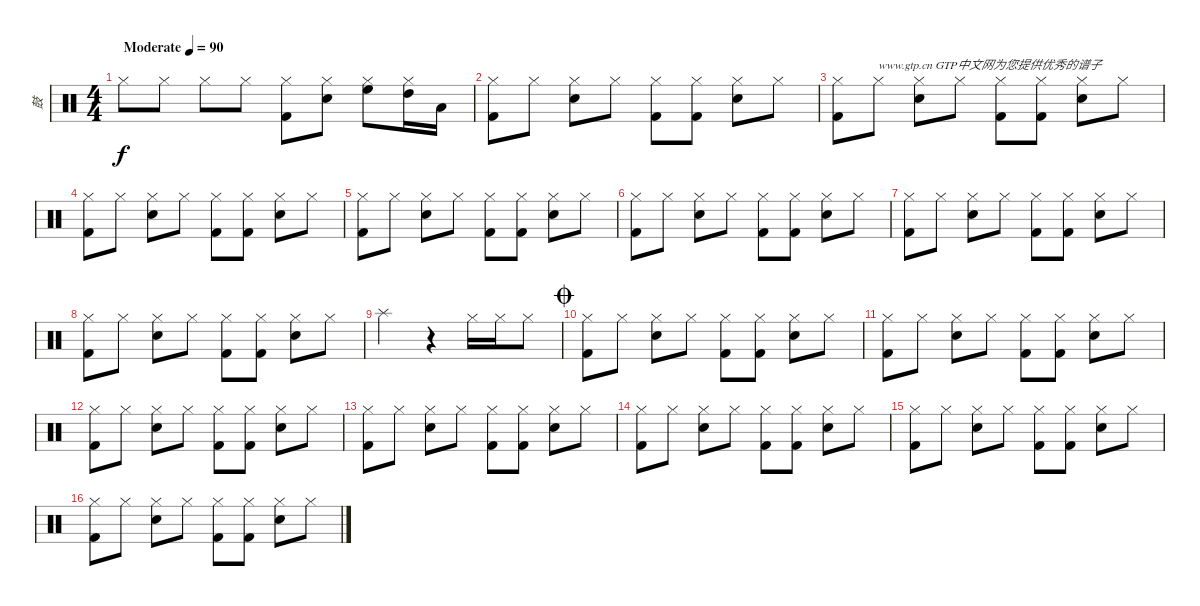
\track ("鼓" "鼓") {instrument percussion}
\staff {score}
\articulation defaults
\ts (4 4)
\tempo (90 "Moderate")
\clef neutral
\ks c "Hi-Hat (closed)".8{dy f} "Hi-Hat (closed)".8 "Hi-Hat (closed)".8 "Hi-Hat (closed)".8
("Kick (hit) 2" "Hi-Hat (closed)").8 ("Hi-Hat (closed)" "Electric Snare (hit)").8 ("High Floor Tom (hit)" "Hi-Hat (closed)").8 ("Hi-Hat (closed)" "High Tom (hit)").16 "Low Tom (hit)".16 |
("Hi-Hat (closed)" "Kick (hit) 2").8 "Hi-Hat (closed)".8 ("Electric Snare (hit)" "Hi-Hat (closed)").8 "Hi-Hat (closed)".8 ("Kick (hit) 2" "Hi-Hat (closed)").8 ("Kick (hit) 2" "Hi-Hat (closed)").8 ("Electric Snare (hit)" "Hi-Hat (closed)").8 "Hi-Hat (closed)".8 |
("Hi-Hat (closed)" "Kick (hit) 2").8 "Hi-Hat (closed)".8{txt "www.gtp.cn GTP中文网为您提供优秀的谱子"} ("Electric Snare (hit)" "Hi-Hat (closed)").8 "Hi-Hat (closed)".8 ("Kick (hit) 2" "Hi-Hat (closed)").8 ("Kick (hit) 2" "Hi-Hat (closed)").8 ("Electric Snare (hit)" "Hi-Hat (closed)").8 "Hi-Hat (closed)".8 |
("Hi-Hat (closed)" "Kick (hit) 2").8 "Hi-Hat (closed)".8 ("Electric Snare (hit)" "Hi-Hat (closed)").8 "Hi-Hat (closed)".8 ("Kick (hit) 2" "Hi-Hat (closed)").8 ("Kick (hit) 2" "Hi-Hat (closed)").8 ("Electric Snare (hit)" "Hi-Hat (closed)").8 "Hi-Hat (closed)".8 |
("Hi-Hat (closed)" "Kick (hit) 2").8 "Hi-Hat (closed)".8 ("Electric Snare (hit)" "Hi-Hat (closed)").8 "Hi-Hat (closed)".8 ("Kick (hit) 2" "Hi-Hat (closed)").8 ("Kick (hit) 2" "Hi-Hat (closed)").8 ("Electric Snare (hit)" "Hi-Hat (closed)").8 "Hi-Hat (closed)".8 |
("Hi-Hat (closed)" "Kick (hit) 2").8 "Hi-Hat (closed)".8 ("Electric Snare (hit)" "Hi-Hat (closed)").8 "Hi-Hat (closed)".8 ("Kick (hit) 2" "Hi-Hat (closed)").8 ("Kick (hit) 2" "Hi-Hat (closed)").8 ("Electric Snare (hit)" "Hi-Hat (closed)").8 "Hi-Hat (closed)".8 |
("Hi-Hat (closed)" "Kick (hit) 2").8 "Hi-Hat (closed)".8 ("Electric Snare (hit)" "Hi-Hat (closed)").8 "Hi-Hat (closed)".8 ("Kick (hit) 2" "Hi-Hat (closed)").8 ("Kick (hit) 2" "Hi-Hat (closed)").8 ("Electric Snare (hit)" "Hi-Hat (closed)").8 "Hi-Hat (closed)".8 |
("Hi-Hat (closed)" "Kick (hit) 2").8 "Hi-Hat (closed)".8 ("Electric Snare (hit)" "Hi-Hat (closed)").8 "Hi-Hat (closed)".8 ("Kick (hit) 2" "Hi-Hat (closed)").8 ("Kick (hit) 2" "Hi-Hat (closed)").8 ("Electric Snare (hit)" "Hi-Hat (closed)").8 "Hi-Hat (closed)".8 |
"Splash (hit)".2 r.4 "Hi-Hat (closed)".16 "Hi-Hat (closed)".16 "Hi-Hat (closed)".8 |
\jump coda
("Hi-Hat (closed)" "Kick (hit) 2").8 "Hi-Hat (closed)".8 ("Electric Snare (hit)" "Hi-Hat (closed)").8 "Hi-Hat (closed)".8 ("Kick (hit) 2" "Hi-Hat (closed)").8 ("Kick (hit) 2" "Hi-Hat (closed)").8 ("Electric Snare (hit)" "Hi-Hat (closed)").8 "Hi-Hat (closed)".8 |
("Hi-Hat (closed)" "Kick (hit) 2").8 "Hi-Hat (closed)".8 ("Electric Snare (hit)" "Hi-Hat (closed)").8 "Hi-Hat (closed)".8 ("Kick (hit) 2" "Hi-Hat (closed)").8 ("Kick (hit) 2" "Hi-Hat (closed)").8 ("Electric Snare (hit)" "Hi-Hat (closed)").8 "Hi-Hat (closed)".8 |
("Hi-Hat (closed)" "Kick (hit) 2").8 "Hi-Hat (closed)".8 ("Electric Snare (hit)" "Hi-Hat (closed)").8 "Hi-Hat (closed)".8 ("Kick (hit) 2" "Hi-Hat (closed)").8 ("Kick (hit) 2" "Hi-Hat (closed)").8 ("Electric Snare (hit)" "Hi-Hat (closed)").8 "Hi-Hat (closed)".8 |
("Hi-Hat (closed)" "Kick (hit) 2").8 "Hi-Hat (closed)".8 ("Electric Snare (hit)" "Hi-Hat (closed)").8 "Hi-Hat (closed)".8 ("Kick (hit) 2" "Hi-Hat (closed)").8 ("Kick (hit) 2" "Hi-Hat (closed)").8 ("Electric Snare (hit)" "Hi-Hat (closed)").8 "Hi-Hat (closed)".8 |
("Hi-Hat (closed)" "Kick (hit) 2").8 "Hi-Hat (closed)".8 ("Electric Snare (hit)" "Hi-Hat (closed)").8 "Hi-Hat (closed)".8 ("Kick (hit) 2" "Hi-Hat (closed)").8 ("Kick (hit) 2" "Hi-Hat (closed)").8 ("Electric Snare (hit)" "Hi-Hat (closed)").8 "Hi-Hat (closed)".8 |
("Hi-Hat (closed)" "Kick (hit) 2").8 "Hi-Hat (closed)".8 ("Electric Snare (hit)" "Hi-Hat (closed)").8 "Hi-Hat (closed)".8 ("Kick (hit) 2" "Hi-Hat (closed)").8 ("Kick (hit) 2" "Hi-Hat (closed)").8 ("Electric Snare (hit)" "Hi-Hat (closed)").8 "Hi-Hat (closed)".8 |
("Hi-Hat (closed)" "Kick (hit) 2").8 "Hi-Hat (closed)".8 ("Electric Snare (hit)" "Hi-Hat (closed)").8 "Hi-Hat (closed)".8 ("Kick (hit) 2" "Hi-Hat (closed)").8 ("Kick (hit) 2" "Hi-Hat (closed)").8 ("Electric Snare (hit)" "Hi-Hat (closed)").8 "Hi-Hat (closed)".8
